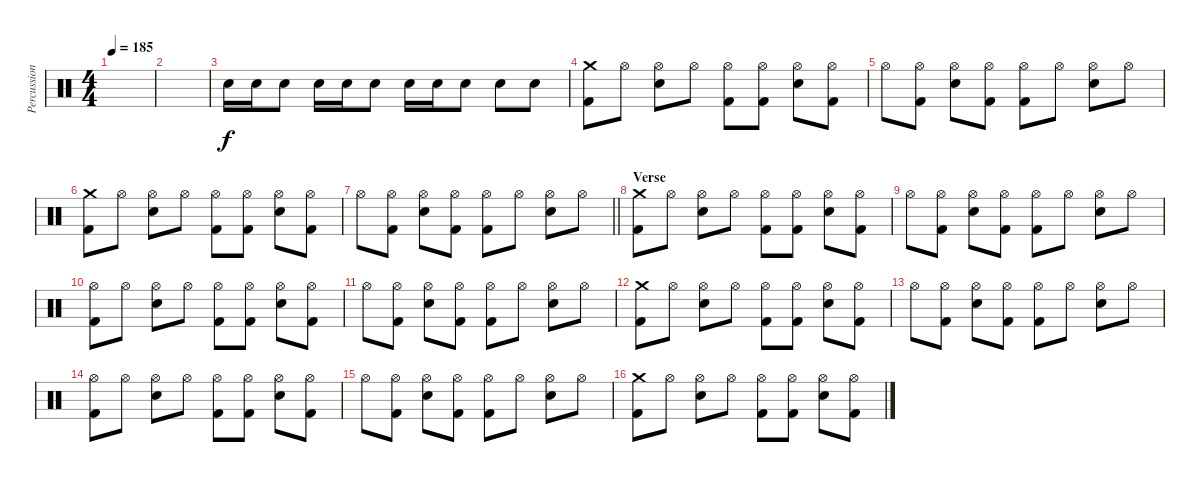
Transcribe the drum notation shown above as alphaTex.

\track ("Percussion" "Percussion") {instrument percussion}
\staff {score}
\articulation defaults
\ts (4 4)
\tempo 185
\clef neutral
\ks c
|
|
"Electric Snare (hit)".16 "Electric Snare (hit)".16 "Electric Snare (hit)".8 "Electric Snare (hit)".16 "Electric Snare (hit)".16 "Electric Snare (hit)".8 "Electric Snare (hit)".16 "Electric Snare (hit)".16 "Electric Snare (hit)".8 "Electric Snare (hit)".8 "Electric Snare (hit)".8 |
("Crash medium (hit)" "Kick (hit) 2").8 "Hi-Hat (open)".8 ("Hi-Hat (open)" "Electric Snare (hit)").8 "Hi-Hat (open)".8 ("Hi-Hat (open)" "Kick (hit) 2").8 ("Hi-Hat (open)" "Kick (hit) 2").8 ("Hi-Hat (open)" "Electric Snare (hit)").8 ("Hi-Hat (open)" "Kick (hit) 2").8 |
"Hi-Hat (open)".8 ("Hi-Hat (open)" "Kick (hit) 2").8 ("Hi-Hat (open)" "Electric Snare (hit)").8 ("Hi-Hat (open)" "Kick (hit) 2").8 ("Hi-Hat (open)" "Kick (hit) 2").8 "Hi-Hat (open)".8 ("Hi-Hat (open)" "Electric Snare (hit)").8 "Hi-Hat (open)".8 |
("Crash medium (hit)" "Kick (hit) 2").8 "Hi-Hat (open)".8 ("Hi-Hat (open)" "Electric Snare (hit)").8 "Hi-Hat (open)".8 ("Hi-Hat (open)" "Kick (hit) 2").8 ("Hi-Hat (open)" "Kick (hit) 2").8 ("Hi-Hat (open)" "Electric Snare (hit)").8 ("Hi-Hat (open)" "Kick (hit) 2").8 |
\barLineRight lightlight "Hi-Hat (open)".8
("Hi-Hat (open)" "Kick (hit) 2").8 ("Hi-Hat (open)" "Electric Snare (hit)").8 ("Hi-Hat (open)" "Kick (hit) 2").8 ("Hi-Hat (open)" "Kick (hit) 2").8 "Hi-Hat (open)".8 ("Hi-Hat (open)" "Electric Snare (hit)").8 "Hi-Hat (open)".8 |
\section ("" "Verse")
("Crash medium (hit)" "Kick (hit) 2").8 "Hi-Hat (open)".8 ("Hi-Hat (open)" "Electric Snare (hit)").8 "Hi-Hat (open)".8 ("Hi-Hat (open)" "Kick (hit) 2").8 ("Hi-Hat (open)" "Kick (hit) 2").8 ("Hi-Hat (open)" "Electric Snare (hit)").8 ("Hi-Hat (open)" "Kick (hit) 2").8 |
"Hi-Hat (open)".8 ("Hi-Hat (open)" "Kick (hit) 2").8 ("Hi-Hat (open)" "Electric Snare (hit)").8 ("Hi-Hat (open)" "Kick (hit) 2").8 ("Hi-Hat (open)" "Kick (hit) 2").8 "Hi-Hat (open)".8 ("Hi-Hat (open)" "Electric Snare (hit)").8 "Hi-Hat (open)".8 |
("Hi-Hat (open)" "Kick (hit) 2").8 "Hi-Hat (open)".8 ("Hi-Hat (open)" "Electric Snare (hit)").8 "Hi-Hat (open)".8 ("Hi-Hat (open)" "Kick (hit) 2").8 ("Hi-Hat (open)" "Kick (hit) 2").8 ("Hi-Hat (open)" "Electric Snare (hit)").8 ("Hi-Hat (open)" "Kick (hit) 2").8 |
"Hi-Hat (open)".8 ("Hi-Hat (open)" "Kick (hit) 2").8 ("Hi-Hat (open)" "Electric Snare (hit)").8 ("Hi-Hat (open)" "Kick (hit) 2").8 ("Hi-Hat (open)" "Kick (hit) 2").8 "Hi-Hat (open)".8 ("Hi-Hat (open)" "Electric Snare (hit)").8 "Hi-Hat (open)".8 |
("Crash medium (hit)" "Kick (hit) 2").8 "Hi-Hat (open)".8 ("Hi-Hat (open)" "Electric Snare (hit)").8 "Hi-Hat (open)".8 ("Hi-Hat (open)" "Kick (hit) 2").8 ("Hi-Hat (open)" "Kick (hit) 2").8 ("Hi-Hat (open)" "Electric Snare (hit)").8 ("Hi-Hat (open)" "Kick (hit) 2").8 |
"Hi-Hat (open)".8 ("Hi-Hat (open)" "Kick (hit) 2").8 ("Hi-Hat (open)" "Electric Snare (hit)").8 ("Hi-Hat (open)" "Kick (hit) 2").8 ("Hi-Hat (open)" "Kick (hit) 2").8 "Hi-Hat (open)".8 ("Hi-Hat (open)" "Electric Snare (hit)").8 "Hi-Hat (open)".8 |
("Hi-Hat (open)" "Kick (hit) 2").8 "Hi-Hat (open)".8 ("Hi-Hat (open)" "Electric Snare (hit)").8 "Hi-Hat (open)".8 ("Hi-Hat (open)" "Kick (hit) 2").8 ("Hi-Hat (open)" "Kick (hit) 2").8 ("Hi-Hat (open)" "Electric Snare (hit)").8 ("Hi-Hat (open)" "Kick (hit) 2").8 |
"Hi-Hat (open)".8 ("Hi-Hat (open)" "Kick (hit) 2").8 ("Hi-Hat (open)" "Electric Snare (hit)").8 ("Hi-Hat (open)" "Kick (hit) 2").8 ("Hi-Hat (open)" "Kick (hit) 2").8 "Hi-Hat (open)".8 ("Hi-Hat (open)" "Electric Snare (hit)").8 "Hi-Hat (open)".8 |
("Crash medium (hit)" "Kick (hit) 2").8 "Hi-Hat (open)".8 ("Hi-Hat (open)" "Electric Snare (hit)").8 "Hi-Hat (open)".8 ("Hi-Hat (open)" "Kick (hit) 2").8 ("Hi-Hat (open)" "Kick (hit) 2").8 ("Hi-Hat (open)" "Electric Snare (hit)").8 ("Hi-Hat (open)" "Kick (hit) 2").8
